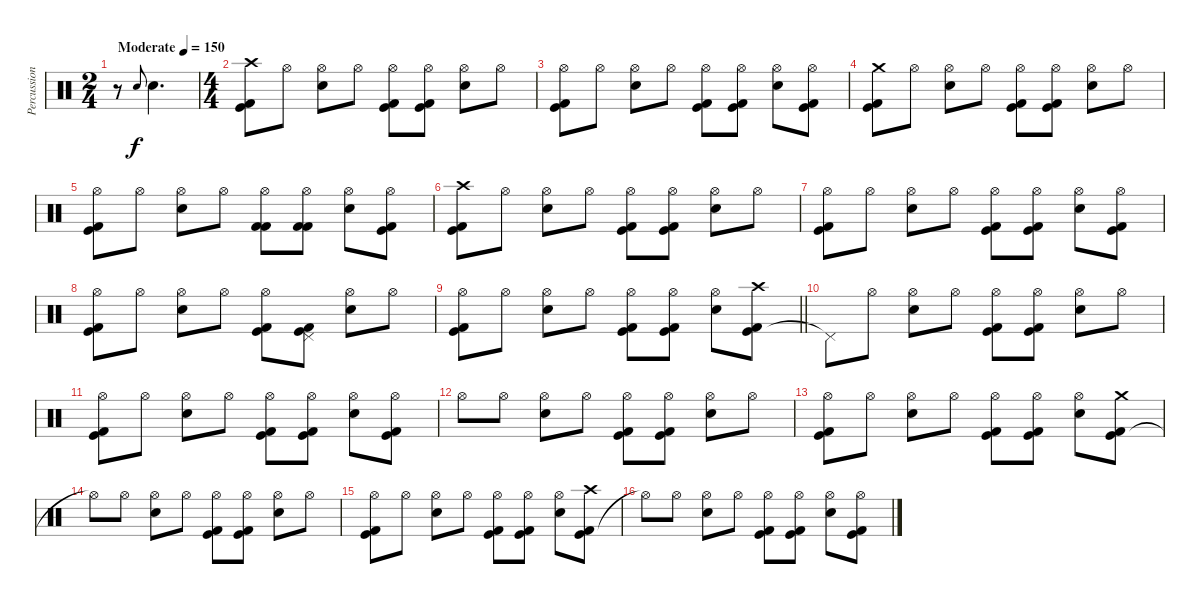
\track ("Percussion" "Percussion") {instrument percussion}
\staff {score}
\articulation defaults
\ts (2 4)
\tempo (150 "Moderate")
\clef neutral
\ks c
r.8{dy f} "Electric Snare (hit)".8{gr onbeat} "Electric Snare (hit)".4{d} |
\ts (4 4)
("Kick (hit)" "Kick (hit) 2" "Crash high (hit)").8 "Hi-Hat (open)".8 ("Electric Snare (hit)" "Hi-Hat (open)").8 "Hi-Hat (open)".8 ("Kick (hit)" "Kick (hit) 2" "Hi-Hat (open)").8 ("Kick (hit)" "Kick (hit) 2" "Hi-Hat (open)").8 ("Electric Snare (hit)" "Hi-Hat (open)").8 "Hi-Hat (open)".8 |
("Kick (hit)" "Kick (hit) 2" "Hi-Hat (open)").8 "Hi-Hat (open)".8 ("Electric Snare (hit)" "Hi-Hat (open)").8 "Hi-Hat (open)".8 ("Kick (hit)" "Kick (hit) 2" "Hi-Hat (open)").8 ("Kick (hit)" "Kick (hit) 2" "Hi-Hat (open)").8 ("Electric Snare (hit)" "Hi-Hat (open)").8 ("Kick (hit)" "Kick (hit) 2" "Hi-Hat (open)").8 |
("Kick (hit)" "Kick (hit) 2" "Crash medium (hit)").8 "Hi-Hat (open)".8 ("Electric Snare (hit)" "Hi-Hat (open)").8 "Hi-Hat (open)".8 ("Kick (hit)" "Kick (hit) 2" "Hi-Hat (open)").8 ("Kick (hit)" "Kick (hit) 2" "Hi-Hat (open)").8 ("Electric Snare (hit)" "Hi-Hat (open)").8 "Hi-Hat (open)".8 |
("Kick (hit)" "Kick (hit) 2" "Hi-Hat (open)").8 "Hi-Hat (open)".8 ("Electric Snare (hit)" "Hi-Hat (open)").8 "Hi-Hat (open)".8 ("Kick (hit) 2" "Kick (hit) 2" "Hi-Hat (open)").8 ("Kick (hit) 2" "Kick (hit) 2" "Hi-Hat (open)").8 ("Electric Snare (hit)" "Hi-Hat (open)").8 ("Kick (hit)" "Kick (hit) 2" "Hi-Hat (open)").8 |
("Kick (hit)" "Kick (hit) 2" "Crash high (hit)").8 "Hi-Hat (open)".8 ("Electric Snare (hit)" "Hi-Hat (open)").8 "Hi-Hat (open)".8 ("Kick (hit)" "Kick (hit) 2" "Hi-Hat (open)").8 ("Kick (hit)" "Kick (hit) 2" "Hi-Hat (open)").8 ("Electric Snare (hit)" "Hi-Hat (open)").8 "Hi-Hat (open)".8 |
("Kick (hit)" "Kick (hit) 2" "Hi-Hat (open)").8 "Hi-Hat (open)".8 ("Electric Snare (hit)" "Hi-Hat (open)").8 "Hi-Hat (open)".8 ("Kick (hit)" "Kick (hit) 2" "Hi-Hat (open)").8 ("Kick (hit)" "Kick (hit) 2" "Hi-Hat (open)").8 ("Electric Snare (hit)" "Hi-Hat (open)").8 ("Kick (hit)" "Kick (hit) 2" "Hi-Hat (open)").8 |
("Kick (hit)" "Kick (hit) 2" "Hi-Hat (open)").8 "Hi-Hat (open)".8 ("Electric Snare (hit)" "Hi-Hat (open)").8 "Hi-Hat (open)".8 ("Kick (hit)" "Kick (hit) 2" "Hi-Hat (open)").8 ("Kick (hit)" "Kick (hit) 2" "Pedal Hi-Hat (hit)").8 ("Electric Snare (hit)" "Hi-Hat (open)").8 "Hi-Hat (open)".8 |
\barLineRight lightlight
("Kick (hit)" "Kick (hit) 2" "Hi-Hat (open)").8 "Hi-Hat (open)".8 ("Electric Snare (hit)" "Hi-Hat (open)").8 "Hi-Hat (open)".8 ("Kick (hit)" "Kick (hit) 2" "Hi-Hat (open)").8 ("Kick (hit)" "Kick (hit) 2" "Hi-Hat (open)").8 ("Electric Snare (hit)" "Hi-Hat (open)").8 ("Kick (hit)" "Kick (hit) 2" "Crash high (hit)").8 |
\section ("" "")
"Pedal Hi-Hat (hit)"{t}.8 "Hi-Hat (open)".8 ("Electric Snare (hit)" "Hi-Hat (open)").8 "Hi-Hat (open)".8 ("Kick (hit)" "Kick (hit) 2" "Hi-Hat (open)").8 ("Kick (hit)" "Kick (hit) 2" "Hi-Hat (open)").8 ("Electric Snare (hit)" "Hi-Hat (open)").8 "Hi-Hat (open)".8 |
("Kick (hit)" "Kick (hit) 2" "Hi-Hat (open)").8 "Hi-Hat (open)".8 ("Electric Snare (hit)" "Hi-Hat (open)").8 "Hi-Hat (open)".8 ("Kick (hit)" "Kick (hit) 2" "Hi-Hat (open)").8 ("Kick (hit)" "Kick (hit) 2" "Hi-Hat (open)").8 ("Electric Snare (hit)" "Hi-Hat (open)").8 ("Kick (hit)" "Kick (hit) 2" "Hi-Hat (open)").8 |
"Hi-Hat (open)".8 "Hi-Hat (open)".8 ("Electric Snare (hit)" "Hi-Hat (open)").8 "Hi-Hat (open)".8 ("Kick (hit)" "Kick (hit) 2" "Hi-Hat (open)").8 ("Kick (hit)" "Kick (hit) 2" "Hi-Hat (open)").8 ("Electric Snare (hit)" "Hi-Hat (open)").8 "Hi-Hat (open)".8 |
("Kick (hit)" "Kick (hit) 2" "Hi-Hat (open)").8 "Hi-Hat (open)".8 ("Electric Snare (hit)" "Hi-Hat (open)").8 "Hi-Hat (open)".8 ("Kick (hit)" "Kick (hit) 2" "Hi-Hat (open)").8 ("Kick (hit)" "Kick (hit) 2" "Hi-Hat (open)").8 ("Electric Snare (hit)" "Hi-Hat (open)").8 ("Kick (hit)" "Kick (hit) 2" "Crash medium (hit)").8 |
"Hi-Hat (open)"{t}.8 "Hi-Hat (open)".8 ("Electric Snare (hit)" "Hi-Hat (open)").8 "Hi-Hat (open)".8 ("Kick (hit)" "Kick (hit) 2" "Hi-Hat (open)").8 ("Kick (hit)" "Kick (hit) 2" "Hi-Hat (open)").8 ("Electric Snare (hit)" "Hi-Hat (open)").8 "Hi-Hat (open)".8 |
("Kick (hit)" "Kick (hit) 2" "Hi-Hat (open)").8 "Hi-Hat (open)".8 ("Electric Snare (hit)" "Hi-Hat (open)").8 "Hi-Hat (open)".8 ("Kick (hit)" "Kick (hit) 2" "Hi-Hat (open)").8 ("Kick (hit)" "Kick (hit) 2" "Hi-Hat (open)").8 ("Electric Snare (hit)" "Hi-Hat (open)").8 ("Kick (hit)" "Kick (hit) 2" "Crash high (hit)").8 |
"Hi-Hat (open)"{t}.8 "Hi-Hat (open)".8 ("Electric Snare (hit)" "Hi-Hat (open)").8 "Hi-Hat (open)".8 ("Kick (hit)" "Kick (hit) 2" "Hi-Hat (open)").8 ("Kick (hit)" "Kick (hit) 2" "Hi-Hat (open)").8 ("Electric Snare (hit)" "Hi-Hat (open)").8 ("Kick (hit)" "Kick (hit) 2" "Hi-Hat (open)").8
